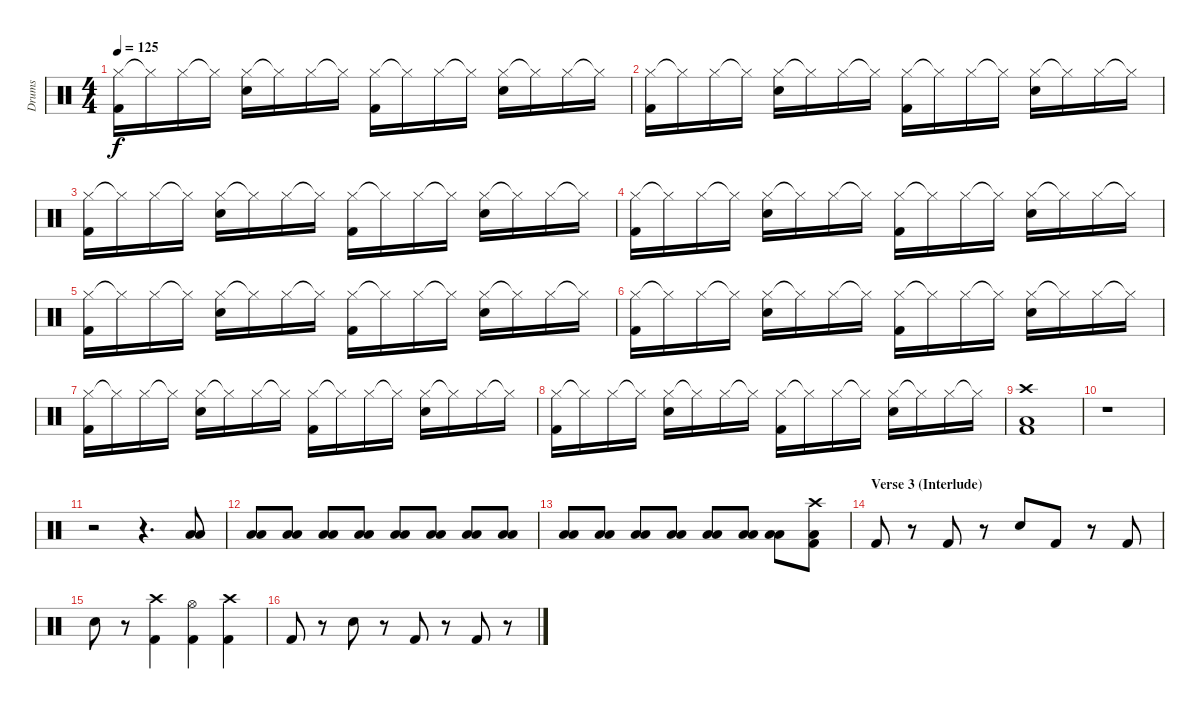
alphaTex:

\track ("Drums" "Drums") {instrument percussion}
\staff {score}
\articulation defaults
\ts (4 4)
\tempo 125
\clef neutral
\ks c
("Hi-Hat (closed)" "Kick (hit) 2").16{dy f} "Hi-Hat (closed)"{t}.16 "Hi-Hat (closed)".16 "Hi-Hat (closed)"{t}.16 ("Hi-Hat (closed)" "Snare (hit) 2").16 "Hi-Hat (closed)"{t}.16 "Hi-Hat (closed)".16 "Hi-Hat (closed)"{t}.16 ("Hi-Hat (closed)" "Kick (hit) 2").16 "Hi-Hat (closed)"{t}.16 "Hi-Hat (closed)".16 "Hi-Hat (closed)"{t}.16 ("Hi-Hat (closed)" "Snare (hit) 2").16 "Hi-Hat (closed)"{t}.16 "Hi-Hat (closed)".16 "Hi-Hat (closed)"{t}.16 |
("Hi-Hat (closed)" "Kick (hit) 2").16 "Hi-Hat (closed)"{t}.16 "Hi-Hat (closed)".16 "Hi-Hat (closed)"{t}.16 ("Hi-Hat (closed)" "Snare (hit) 2").16 "Hi-Hat (closed)"{t}.16 "Hi-Hat (closed)".16 "Hi-Hat (closed)"{t}.16 ("Hi-Hat (closed)" "Kick (hit) 2").16 "Hi-Hat (closed)"{t}.16 "Hi-Hat (closed)".16 "Hi-Hat (closed)"{t}.16 ("Hi-Hat (closed)" "Snare (hit) 2").16 "Hi-Hat (closed)"{t}.16 "Hi-Hat (closed)".16 "Hi-Hat (closed)"{t}.16 |
("Hi-Hat (closed)" "Kick (hit) 2").16 "Hi-Hat (closed)"{t}.16 "Hi-Hat (closed)".16 "Hi-Hat (closed)"{t}.16 ("Hi-Hat (closed)" "Snare (hit) 2").16 "Hi-Hat (closed)"{t}.16 "Hi-Hat (closed)".16 "Hi-Hat (closed)"{t}.16 ("Hi-Hat (closed)" "Kick (hit) 2").16 "Hi-Hat (closed)"{t}.16 "Hi-Hat (closed)".16 "Hi-Hat (closed)"{t}.16 ("Hi-Hat (closed)" "Snare (hit) 2").16 "Hi-Hat (closed)"{t}.16 "Hi-Hat (closed)".16 "Hi-Hat (closed)"{t}.16 |
("Hi-Hat (closed)" "Kick (hit) 2").16 "Hi-Hat (closed)"{t}.16 "Hi-Hat (closed)".16 "Hi-Hat (closed)"{t}.16 ("Hi-Hat (closed)" "Snare (hit) 2").16 "Hi-Hat (closed)"{t}.16 "Hi-Hat (closed)".16 "Hi-Hat (closed)"{t}.16 ("Hi-Hat (closed)" "Kick (hit) 2").16 "Hi-Hat (closed)"{t}.16 "Hi-Hat (closed)".16 "Hi-Hat (closed)"{t}.16 ("Hi-Hat (closed)" "Snare (hit) 2").16 "Hi-Hat (closed)"{t}.16 "Hi-Hat (closed)".16 "Hi-Hat (closed)"{t}.16 |
("Hi-Hat (closed)" "Kick (hit) 2").16 "Hi-Hat (closed)"{t}.16 "Hi-Hat (closed)".16 "Hi-Hat (closed)"{t}.16 ("Hi-Hat (closed)" "Snare (hit) 2").16 "Hi-Hat (closed)"{t}.16 "Hi-Hat (closed)".16 "Hi-Hat (closed)"{t}.16 ("Hi-Hat (closed)" "Kick (hit) 2").16 "Hi-Hat (closed)"{t}.16 "Hi-Hat (closed)".16 "Hi-Hat (closed)"{t}.16 ("Hi-Hat (closed)" "Snare (hit) 2").16 "Hi-Hat (closed)"{t}.16 "Hi-Hat (closed)".16 "Hi-Hat (closed)"{t}.16 |
("Hi-Hat (closed)" "Kick (hit) 2").16 "Hi-Hat (closed)"{t}.16 "Hi-Hat (closed)".16 "Hi-Hat (closed)"{t}.16 ("Hi-Hat (closed)" "Snare (hit) 2").16 "Hi-Hat (closed)"{t}.16 "Hi-Hat (closed)".16 "Hi-Hat (closed)"{t}.16 ("Hi-Hat (closed)" "Kick (hit) 2").16 "Hi-Hat (closed)"{t}.16 "Hi-Hat (closed)".16 "Hi-Hat (closed)"{t}.16 ("Hi-Hat (closed)" "Snare (hit) 2").16 "Hi-Hat (closed)"{t}.16 "Hi-Hat (closed)".16 "Hi-Hat (closed)"{t}.16 |
("Hi-Hat (closed)" "Kick (hit) 2").16 "Hi-Hat (closed)"{t}.16 "Hi-Hat (closed)".16 "Hi-Hat (closed)"{t}.16 ("Hi-Hat (closed)" "Snare (hit) 2").16 "Hi-Hat (closed)"{t}.16 "Hi-Hat (closed)".16 "Hi-Hat (closed)"{t}.16 ("Hi-Hat (closed)" "Kick (hit) 2").16 "Hi-Hat (closed)"{t}.16 "Hi-Hat (closed)".16 "Hi-Hat (closed)"{t}.16 ("Hi-Hat (closed)" "Snare (hit) 2").16 "Hi-Hat (closed)"{t}.16 "Hi-Hat (closed)".16 "Hi-Hat (closed)"{t}.16 |
("Hi-Hat (closed)" "Kick (hit) 2").16 "Hi-Hat (closed)"{t}.16 "Hi-Hat (closed)".16 "Hi-Hat (closed)"{t}.16 ("Hi-Hat (closed)" "Snare (hit) 2").16 "Hi-Hat (closed)"{t}.16 "Hi-Hat (closed)".16 "Hi-Hat (closed)"{t}.16 ("Hi-Hat (closed)" "Kick (hit) 2").16 "Hi-Hat (closed)"{t}.16 "Hi-Hat (closed)".16 "Hi-Hat (closed)"{t}.16 ("Hi-Hat (closed)" "Snare (hit) 2").16 "Hi-Hat (closed)"{t}.16 "Hi-Hat (closed)".16 "Hi-Hat (closed)"{t}.16 |
("Kick (hit) 2" "Low Tom (hit)" "Crash high (hit)").1 |
r.1 |
r.2 r.4{d} ("Low Floor Tom (hit)" "Low Tom (hit)").8{volume 1} |
("Low Floor Tom (hit)" "Low Tom (hit)").8{volume 1} ("Low Floor Tom (hit)" "Low Tom (hit)").8{volume 2} ("Low Floor Tom (hit)" "Low Tom (hit)").8{volume 3} ("Low Floor Tom (hit)" "Low Tom (hit)").8{volume 4} ("Low Floor Tom (hit)" "Low Tom (hit)").8{volume 5} ("Low Floor Tom (hit)" "Low Tom (hit)").8{volume 6} ("Low Floor Tom (hit)" "Low Tom (hit)").8{volume 7} ("Low Floor Tom (hit)" "Low Tom (hit)").8{volume 8} |
("Low Floor Tom (hit)" "Low Tom (hit)").8{volume 9} ("Low Floor Tom (hit)" "Low Tom (hit)").8{volume 10} ("Low Floor Tom (hit)" "Low Tom (hit)").8{volume 11} ("Low Floor Tom (hit)" "Low Tom (hit)").8{volume 12} ("Low Floor Tom (hit)" "Low Tom (hit)").8{volume 13} ("Low Floor Tom (hit)" "Low Tom (hit)").8{volume 14} ("Low Floor Tom (hit)" "Low Tom (hit)").8{volume 15} ("Kick (hit) 2" "Low Tom (hit)" "Crash high (hit)").8{volume 16} |
\section ("" "Verse 3 (Interlude)")
"Kick (hit) 2".8 r.8 "Kick (hit) 2".8 r.8 "Snare (hit) 2".8 "Kick (hit) 2".8 r.8 "Kick (hit) 2".8 |
\section ("" "")
"Snare (hit) 2".8 r.8 ("Kick (hit) 2" "Crash high (hit)").4 ("Kick (hit) 2" "Hi-Hat (open)").4 ("Kick (hit) 2" "Crash high (hit)").4 |
"Kick (hit) 2".8 r.8 "Snare (hit) 2".8 r.8 "Kick (hit) 2".8 r.8 "Kick (hit) 2".8 r.8
